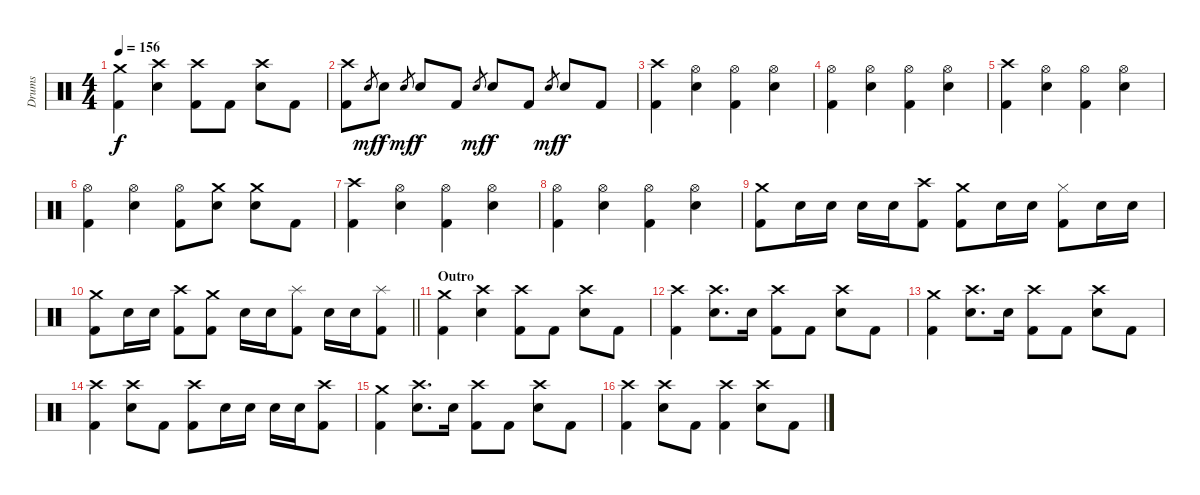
\track ("Drums" "Drums") {instrument percussion}
\staff {score}
\articulation defaults
\ts (4 4)
\tempo 156
\clef neutral
\ks c
("Crash medium (hit)" "Kick (hit) 2").4{dy f} ("Crash high (hit)" "Snare (hit) 2").4 ("Crash high (hit)" "Kick (hit) 2").8 "Kick (hit) 2".8 ("Crash high (hit)" "Snare (hit) 2").8 "Kick (hit) 2".8 |
("Crash high (hit)" "Kick (hit) 2").8 "Snare (hit)".8{gr dy mf} "Snare (hit) 2".8{dy f} "Snare (hit)".8{gr dy mf} "Snare (hit) 2".8{dy f} "Kick (hit) 2".8 "Snare (hit)".8{gr dy mf} "Snare (hit) 2".8{dy f} "Kick (hit) 2".8 "Snare (hit)".8{gr dy mf} "Snare (hit) 2".8{dy f} "Kick (hit) 2".8 |
("Crash high (hit)" "Kick (hit) 2").4 ("Hi-Hat (open)" "Snare (hit) 2").4 ("Hi-Hat (open)" "Kick (hit) 2").4 ("Hi-Hat (open)" "Snare (hit) 2").4 |
("Hi-Hat (open)" "Kick (hit) 2").4 ("Hi-Hat (open)" "Snare (hit) 2").4 ("Hi-Hat (open)" "Kick (hit) 2").4 ("Hi-Hat (open)" "Snare (hit) 2").4 |
("Crash high (hit)" "Kick (hit) 2").4 ("Hi-Hat (open)" "Snare (hit) 2").4 ("Hi-Hat (open)" "Kick (hit) 2").4 ("Hi-Hat (open)" "Snare (hit) 2").4 |
("Hi-Hat (open)" "Kick (hit) 2").4 ("Hi-Hat (open)" "Snare (hit) 2").4 ("Hi-Hat (open)" "Kick (hit) 2").8 ("Crash medium (hit)" "Snare (hit) 2").8 ("Crash medium (hit)" "Snare (hit) 2").8 "Kick (hit) 2".8 |
("Crash high (hit)" "Kick (hit) 2").4 ("Hi-Hat (open)" "Snare (hit) 2").4 ("Hi-Hat (open)" "Kick (hit) 2").4 ("Hi-Hat (open)" "Snare (hit) 2").4 |
("Hi-Hat (open)" "Kick (hit) 2").4 ("Hi-Hat (open)" "Snare (hit) 2").4 ("Hi-Hat (open)" "Kick (hit) 2").4 ("Hi-Hat (open)" "Snare (hit) 2").4 |
("Crash medium (hit)" "Kick (hit) 2").8 "Snare (hit) 2".16 "Snare (hit) 2".16 "Snare (hit) 2".16 "Snare (hit) 2".16 ("Crash high (hit)" "Kick (hit) 2").8 ("Crash medium (hit)" "Kick (hit) 2").8 "Snare (hit) 2".16 "Snare (hit) 2".16 ("Hi-Hat (closed)" "Kick (hit) 2").8 "Snare (hit) 2".16 "Snare (hit) 2".16 |
\barLineRight lightlight
("Crash medium (hit)" "Kick (hit) 2").8 "Snare (hit) 2".16 "Snare (hit) 2".16 ("Crash high (hit)" "Kick (hit) 2").8 ("Crash medium (hit)" "Kick (hit) 2").8 "Snare (hit) 2".16 "Snare (hit) 2".16 ("Splash (hit)" "Kick (hit) 2").8 "Snare (hit) 2".16 "Snare (hit) 2".16 ("Splash (hit)" "Kick (hit) 2").8 |
\section ("" "Outro")
("Crash medium (hit)" "Kick (hit) 2").4 ("Crash high (hit)" "Snare (hit) 2").4 ("Crash high (hit)" "Kick (hit) 2").8 "Kick (hit) 2".8 ("Crash high (hit)" "Snare (hit) 2").8 "Kick (hit) 2".8 |
("Crash high (hit)" "Kick (hit) 2").4 ("Crash high (hit)" "Snare (hit) 2").8{d} "Snare (hit) 2".16 ("Crash high (hit)" "Kick (hit) 2").8 "Kick (hit) 2".8 ("Crash high (hit)" "Snare (hit) 2").8 "Kick (hit) 2".8 |
("Crash medium (hit)" "Kick (hit) 2").4 ("Crash high (hit)" "Snare (hit) 2").8{d} "Snare (hit) 2".16 ("Crash high (hit)" "Kick (hit) 2").8 "Kick (hit) 2".8 ("Crash high (hit)" "Snare (hit) 2").8 "Kick (hit) 2".8 |
("Crash high (hit)" "Kick (hit) 2").4 ("Crash high (hit)" "Snare (hit) 2").8 "Kick (hit) 2".8 ("Crash high (hit)" "Kick (hit) 2").8 "Snare (hit) 2".16 "Snare (hit) 2".16 "Snare (hit) 2".16 "Snare (hit) 2".16 ("Crash high (hit)" "Kick (hit) 2").8 |
("Crash medium (hit)" "Kick (hit) 2").4 ("Crash high (hit)" "Snare (hit) 2").8{d} "Snare (hit) 2".16 ("Crash high (hit)" "Kick (hit) 2").8 "Kick (hit) 2".8 ("Crash high (hit)" "Snare (hit) 2").8 "Kick (hit) 2".8 |
("Crash high (hit)" "Kick (hit) 2").4 ("Crash high (hit)" "Snare (hit) 2").8 "Kick (hit) 2".8 ("Crash high (hit)" "Kick (hit) 2").4 ("Crash high (hit)" "Snare (hit) 2").8 "Kick (hit) 2".8
